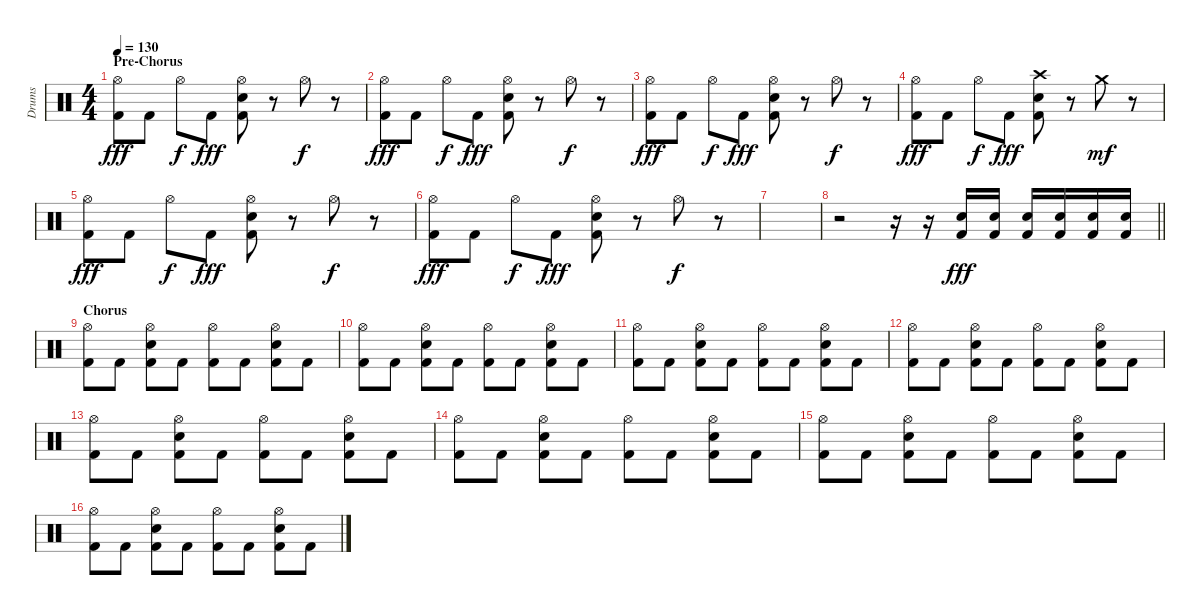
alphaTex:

\track ("Drums" "Drums") {instrument percussion}
\staff {score}
\articulation defaults
\ts (4 4)
\section ("" "Pre-Chorus")
\tempo 130
\clef neutral
\ks c
("Hi-Hat (open)" "Kick (hit) 2").8{dy fff} "Kick (hit) 2".8 "Hi-Hat (open)".8{dy f} "Kick (hit) 2".8{dy fff} ("Hi-Hat (open)" "Snare (hit) 2" "Kick (hit) 2").8 r.8 "Hi-Hat (open)".8{dy f} r.8 |
("Hi-Hat (open)" "Kick (hit) 2").8{dy fff} "Kick (hit) 2".8 "Hi-Hat (open)".8{dy f} "Kick (hit) 2".8{dy fff} ("Hi-Hat (open)" "Snare (hit) 2" "Kick (hit) 2").8 r.8 "Hi-Hat (open)".8{dy f} r.8 |
("Hi-Hat (open)" "Kick (hit) 2").8{dy fff} "Kick (hit) 2".8 "Hi-Hat (open)".8{dy f} "Kick (hit) 2".8{dy fff} ("Hi-Hat (open)" "Snare (hit) 2" "Kick (hit) 2").8 r.8 "Hi-Hat (open)".8{dy f} r.8 |
("Hi-Hat (open)" "Kick (hit) 2").8{dy fff} "Kick (hit) 2".8 "Hi-Hat (open)".8{dy f} "Kick (hit) 2".8{dy fff} ("Crash high (hit)" "Snare (hit) 2" "Kick (hit) 2").8 r.8 "Crash medium (hit)".8{dy mf} r.8 |
("Hi-Hat (open)" "Kick (hit) 2").8{dy fff} "Kick (hit) 2".8 "Hi-Hat (open)".8{dy f} "Kick (hit) 2".8{dy fff} ("Hi-Hat (open)" "Snare (hit) 2" "Kick (hit) 2").8 r.8 "Hi-Hat (open)".8{dy f} r.8 |
("Hi-Hat (open)" "Kick (hit) 2").8{dy fff} "Kick (hit) 2".8 "Hi-Hat (open)".8{dy f} "Kick (hit) 2".8{dy fff} ("Hi-Hat (open)" "Snare (hit) 2" "Kick (hit) 2").8 r.8 "Hi-Hat (open)".8{dy f} r.8 |
|
\barLineRight lightlight
r.2 r.16 r.16 ("Snare (hit) 2" "Kick (hit) 2").16{dy fff} ("Snare (hit) 2" "Kick (hit) 2").16 ("Snare (hit) 2" "Kick (hit) 2").16 ("Snare (hit) 2" "Kick (hit) 2").16 ("Snare (hit) 2" "Kick (hit) 2").16 ("Snare (hit) 2" "Kick (hit) 2").16 |
\section ("" "Chorus")
("Hi-Hat (open)" "Kick (hit) 2").8 "Kick (hit) 2".8 ("Hi-Hat (open)" "Snare (hit) 2" "Kick (hit) 2").8 "Kick (hit) 2".8 ("Hi-Hat (open)" "Kick (hit) 2").8 "Kick (hit) 2".8 ("Hi-Hat (open)" "Snare (hit) 2" "Kick (hit) 2").8 "Kick (hit) 2".8 |
("Hi-Hat (open)" "Kick (hit) 2").8 "Kick (hit) 2".8 ("Hi-Hat (open)" "Snare (hit) 2" "Kick (hit) 2").8 "Kick (hit) 2".8 ("Hi-Hat (open)" "Kick (hit) 2").8 "Kick (hit) 2".8 ("Hi-Hat (open)" "Snare (hit) 2" "Kick (hit) 2").8 "Kick (hit) 2".8 |
("Hi-Hat (open)" "Kick (hit) 2").8 "Kick (hit) 2".8 ("Hi-Hat (open)" "Snare (hit) 2" "Kick (hit) 2").8 "Kick (hit) 2".8 ("Hi-Hat (open)" "Kick (hit) 2").8 "Kick (hit) 2".8 ("Hi-Hat (open)" "Snare (hit) 2" "Kick (hit) 2").8 "Kick (hit) 2".8 |
("Hi-Hat (open)" "Kick (hit) 2").8 "Kick (hit) 2".8 ("Hi-Hat (open)" "Snare (hit) 2" "Kick (hit) 2").8 "Kick (hit) 2".8 ("Hi-Hat (open)" "Kick (hit) 2").8 "Kick (hit) 2".8 ("Hi-Hat (open)" "Snare (hit) 2" "Kick (hit) 2").8 "Kick (hit) 2".8 |
("Hi-Hat (open)" "Kick (hit) 2").8 "Kick (hit) 2".8 ("Hi-Hat (open)" "Snare (hit) 2" "Kick (hit) 2").8 "Kick (hit) 2".8 ("Hi-Hat (open)" "Kick (hit) 2").8 "Kick (hit) 2".8 ("Hi-Hat (open)" "Snare (hit) 2" "Kick (hit) 2").8 "Kick (hit) 2".8 |
("Hi-Hat (open)" "Kick (hit) 2").8 "Kick (hit) 2".8 ("Hi-Hat (open)" "Snare (hit) 2" "Kick (hit) 2").8 "Kick (hit) 2".8 ("Hi-Hat (open)" "Kick (hit) 2").8 "Kick (hit) 2".8 ("Hi-Hat (open)" "Snare (hit) 2" "Kick (hit) 2").8 "Kick (hit) 2".8 |
("Hi-Hat (open)" "Kick (hit) 2").8 "Kick (hit) 2".8 ("Hi-Hat (open)" "Snare (hit) 2" "Kick (hit) 2").8 "Kick (hit) 2".8 ("Hi-Hat (open)" "Kick (hit) 2").8 "Kick (hit) 2".8 ("Hi-Hat (open)" "Snare (hit) 2" "Kick (hit) 2").8 "Kick (hit) 2".8 |
("Hi-Hat (open)" "Kick (hit) 2").8 "Kick (hit) 2".8 ("Hi-Hat (open)" "Snare (hit) 2" "Kick (hit) 2").8 "Kick (hit) 2".8 ("Hi-Hat (open)" "Kick (hit) 2").8 "Kick (hit) 2".8 ("Hi-Hat (open)" "Snare (hit) 2" "Kick (hit) 2").8 "Kick (hit) 2".8
